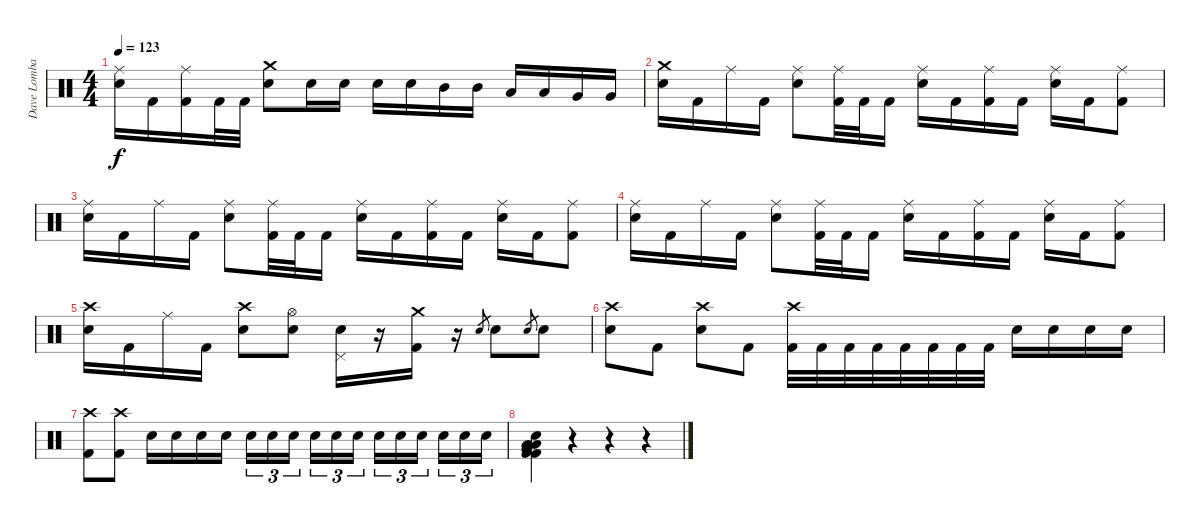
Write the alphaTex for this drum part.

\track ("Dave Lombardo" "Dave Lomba") {instrument percussion}
\staff {score}
\articulation defaults
\ts (4 4)
\tempo 123
\clef neutral
\ks c
("Electric Snare (hit)" "Ride (middle)").16{dy f} "Kick (hit) 2".16 ("Kick (hit) 2" "Ride (middle)").16 "Kick (hit) 2".32 "Kick (hit) 2".32 ("Electric Snare (hit)" "Crash medium (hit)").8 "Electric Snare (hit)".16 "Electric Snare (hit)".16 "Electric Snare (hit)".16 "Electric Snare (hit)".16 "Mid Tom (hit)".16 "Mid Tom (hit)".16 "Low Tom (hit)".16 "Low Tom (hit)".16 "Very Low Tom (hit)".16 "Very Low Tom (hit)".16 |
("Electric Snare (hit)" "Crash medium (hit)").16 "Kick (hit) 2".16 "Ride (middle)".16 "Kick (hit) 2".16 ("Electric Snare (hit)" "Ride (middle)").8 ("Kick (hit) 2" "Ride (middle)").32 "Kick (hit) 2".32 "Kick (hit) 2".16 ("Electric Snare (hit)" "Ride (middle)").16 "Kick (hit) 2".16 ("Kick (hit) 2" "Ride (middle)").16 "Kick (hit) 2".16 ("Electric Snare (hit)" "Ride (middle)").16 "Kick (hit) 2".16 ("Kick (hit) 2" "Ride (middle)").8 |
("Electric Snare (hit)" "Ride (middle)").16 "Kick (hit) 2".16 "Ride (middle)".16 "Kick (hit) 2".16 ("Electric Snare (hit)" "Ride (middle)").8 ("Kick (hit) 2" "Ride (middle)").32 "Kick (hit) 2".32 "Kick (hit) 2".16 ("Electric Snare (hit)" "Ride (middle)").16 "Kick (hit) 2".16 ("Kick (hit) 2" "Ride (middle)").16 "Kick (hit) 2".16 ("Electric Snare (hit)" "Ride (middle)").16 "Kick (hit) 2".16 ("Kick (hit) 2" "Ride (middle)").8 |
("Electric Snare (hit)" "Ride (middle)").16 "Kick (hit) 2".16 "Ride (middle)".16 "Kick (hit) 2".16 ("Electric Snare (hit)" "Ride (middle)").8 ("Kick (hit) 2" "Ride (middle)").32 "Kick (hit) 2".32 "Kick (hit) 2".16 ("Electric Snare (hit)" "Ride (middle)").16 "Kick (hit) 2".16 ("Kick (hit) 2" "Ride (middle)").16 "Kick (hit) 2".16 ("Electric Snare (hit)" "Ride (middle)").16 "Kick (hit) 2".16 ("Kick (hit) 2" "Ride (middle)").8 |
("Electric Snare (hit)" "Crash high (hit)").16 "Kick (hit) 2".16 "Ride (middle)".16 "Kick (hit) 2".16 ("Electric Snare (hit)" "Crash high (hit)").8 ("Electric Snare (hit)" "Hi-Hat (open)").8 ("Electric Snare (hit)" "Pedal Hi-Hat (hit)").16 r.16 ("Kick (hit) 2" "Crash medium (hit)").16 r.16 "Electric Snare (hit)".8{gr} "Electric Snare (hit)".8 "Electric Snare (hit)".8{gr} "Electric Snare (hit)".8 |
("Electric Snare (hit)" "Crash high (hit)").8 "Kick (hit) 2".8 ("Electric Snare (hit)" "Crash high (hit)").8 "Kick (hit) 2".8 ("Kick (hit) 2" "Crash high (hit)").32 "Kick (hit) 2".32 "Kick (hit) 2".32 "Kick (hit) 2".32 "Kick (hit) 2".32 "Kick (hit) 2".32 "Kick (hit) 2".32 "Kick (hit) 2".32 "Electric Snare (hit)".16 "Electric Snare (hit)".16 "Electric Snare (hit)".16 "Electric Snare (hit)".16 |
("Kick (hit) 2" "Crash high (hit)").8 ("Kick (hit) 2" "Crash high (hit)").8 "Electric Snare (hit)".16 "Electric Snare (hit)".16 "Electric Snare (hit)".16 "Electric Snare (hit)".16 "Electric Snare (hit)".16{tu (3 2)} "Electric Snare (hit)".16{tu (3 2)} "Electric Snare (hit)".16{tu (3 2)} "Electric Snare (hit)".16{tu (3 2)} "Electric Snare (hit)".16{tu (3 2)} "Electric Snare (hit)".16{tu (3 2)} "Electric Snare (hit)".16{tu (3 2)} "Electric Snare (hit)".16{tu (3 2)} "Electric Snare (hit)".16{tu (3 2)} "Electric Snare (hit)".16{tu (3 2)} "Electric Snare (hit)".16{tu (3 2)} "Electric Snare (hit)".16{tu (3 2)} |
("Very Low Tom (hit)" "Kick (hit) 2" "Electric Snare (hit)" "Low Floor Tom (hit)" "Low Tom (hit)" "Kick (hit) 2").4 r.4 r.4 r.4
